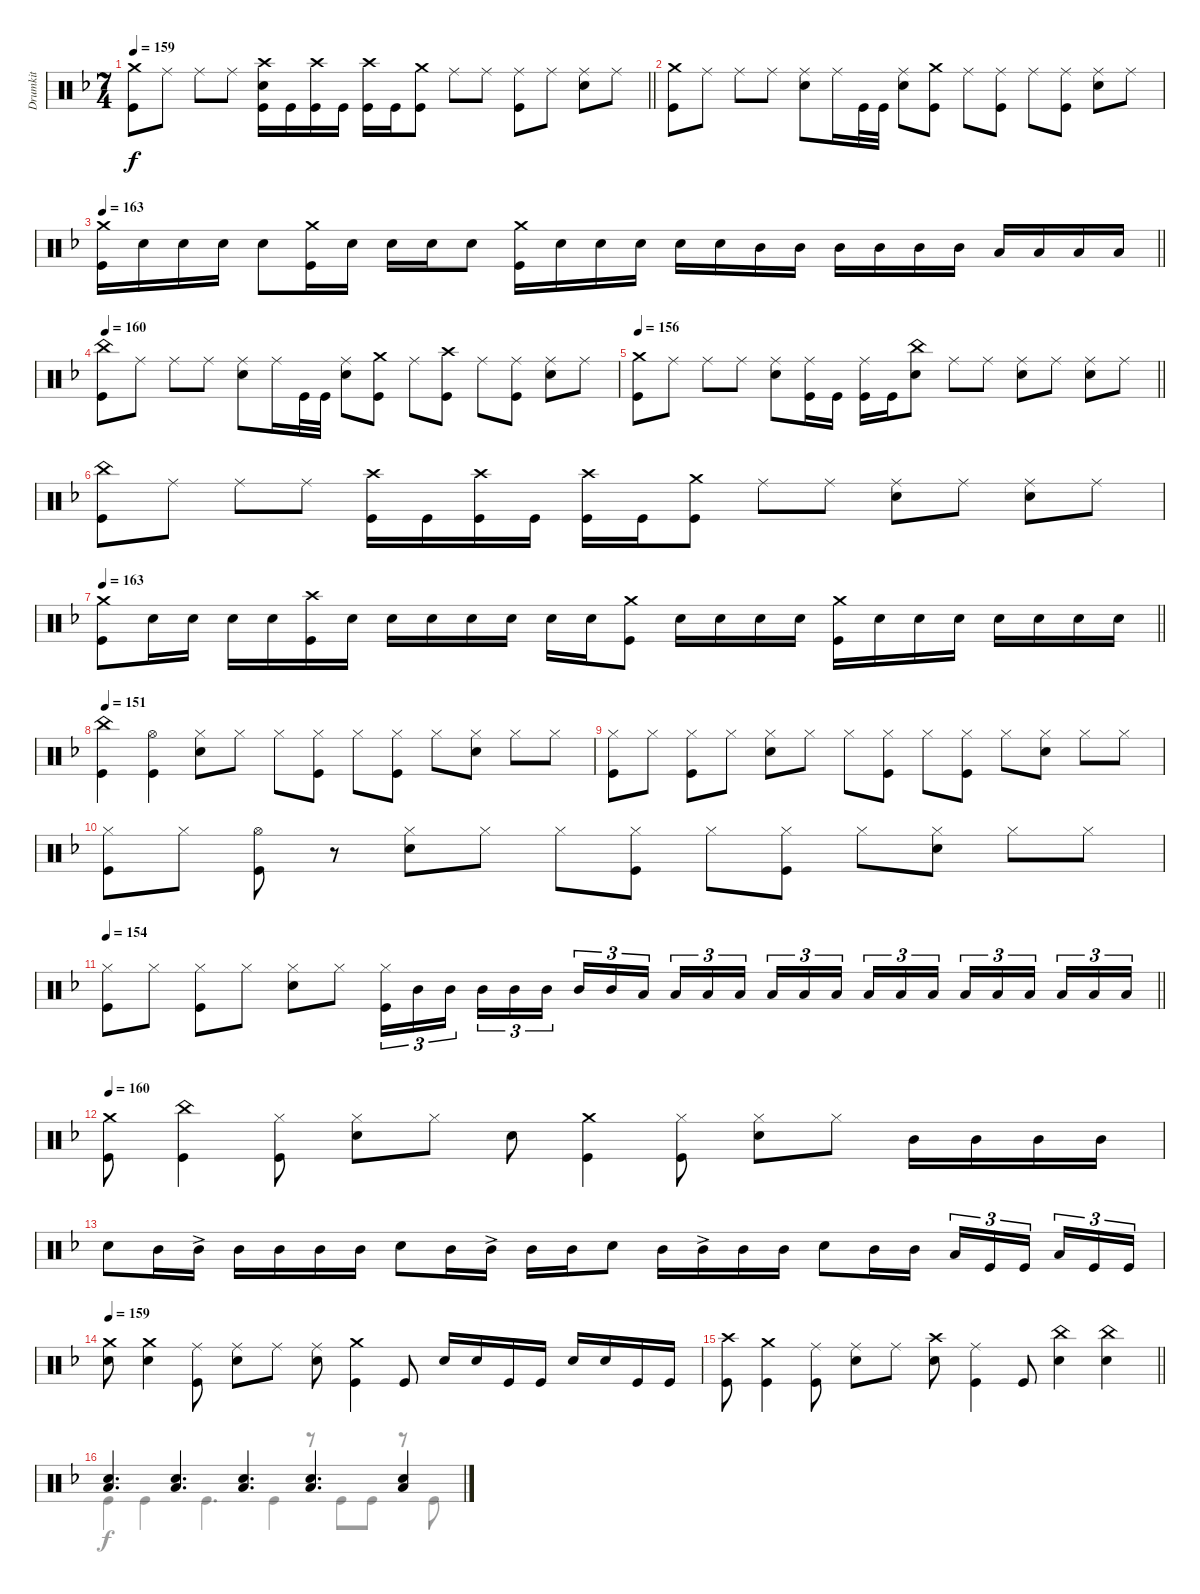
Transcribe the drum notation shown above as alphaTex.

\track ("Drumkit" "Drumkit") {instrument percussion}
\staff {score}
\articulation defaults
\voice
\ts (7 4)
\tempo 159
\clef neutral
\barLineRight lightlight
\ks dminor
("Crash medium (hit)" "Kick (hit)").8{dy f} "Ride (middle)".8 "Ride (middle)".8 "Ride (middle)".8 ("Snare (hit) 2" "Kick (hit)" "Crash high (hit)").16 "Kick (hit)".16 ("Kick (hit)" "Crash high (hit)").16 "Kick (hit)".16 ("Kick (hit)" "Crash high (hit)").16 "Kick (hit)".16 ("Kick (hit)" "Crash medium (hit)").8 "Ride (middle)".8 "Ride (middle)".8 ("Ride (middle)" "Kick (hit)").8 "Ride (middle)".8 ("Ride (middle)" "Snare (hit) 2").8 "Ride (middle)".8 |
("Crash medium (hit)" "Kick (hit)").8 "Ride (middle)".8 "Ride (middle)".8 "Ride (middle)".8 ("Ride (middle)" "Snare (hit) 2").8 "Ride (middle)".16 "Kick (hit)".32 "Kick (hit)".32 ("Ride (middle)" "Snare (hit) 2").8 ("Kick (hit)" "Crash medium (hit)").8 "Ride (middle)".8 ("Ride (middle)" "Kick (hit)").8 "Ride (middle)".8 ("Ride (middle)" "Kick (hit)").8 ("Ride (middle)" "Snare (hit) 2").8 "Ride (middle)".8 |
\tempo 163
\barLineRight lightlight
("Crash medium (hit)" "Kick (hit)").16 "Snare (hit) 2".16 "Snare (hit) 2".16 "Snare (hit) 2".16 "Snare (hit) 2".8 ("Crash medium (hit)" "Kick (hit)").16 "Snare (hit) 2".16 "Snare (hit) 2".16 "Snare (hit) 2".16 "Snare (hit) 2".8 ("Crash medium (hit)" "Kick (hit)").16 "Snare (hit) 2".16 "Snare (hit) 2".16 "Snare (hit) 2".16 "Snare (hit) 2".16 "Snare (hit) 2".16 "Mid Tom (hit)".16 "Mid Tom (hit)".16 "Mid Tom (hit)".16 "Mid Tom (hit)".16 "Mid Tom (hit)".16 "Mid Tom (hit)".16 "Low Floor Tom (hit)".16 "Low Floor Tom (hit)".16 "Low Floor Tom (hit)".16 "Low Floor Tom (hit)".16 |
\tempo 160
("Kick (hit)" "China (hit)").8 "Ride (middle)".8 "Ride (middle)".8 "Ride (middle)".8 ("Ride (middle)" "Snare (hit) 2").8 "Ride (middle)".16 "Kick (hit)".32 "Kick (hit)".32 ("Ride (middle)" "Snare (hit) 2").8 ("Kick (hit)" "Crash medium (hit)").8 "Ride (middle)".8 ("Kick (hit)" "Crash high (hit)").8 "Ride (middle)".8 ("Ride (middle)" "Kick (hit)").8 ("Ride (middle)" "Snare (hit) 2").8 "Ride (middle)".8 |
\tempo 156
\barLineRight lightlight
("Crash medium (hit)" "Kick (hit)").8 "Ride (middle)".8 "Ride (middle)".8 "Ride (middle)".8 ("Ride (middle)" "Snare (hit) 2").8 ("Ride (middle)" "Kick (hit)").16 "Kick (hit)".16 ("Ride (middle)" "Kick (hit)").16 "Kick (hit)".16 ("China (hit)" "Snare (hit) 2").8 "Ride (middle)".8 "Ride (middle)".8 ("Ride (middle)" "Snare (hit) 2").8 "Ride (middle)".8 ("Ride (middle)" "Snare (hit) 2").8 "Ride (middle)".8 |
("Kick (hit)" "China (hit)").8 "Ride (middle)".8 "Ride (middle)".8 "Ride (middle)".8 ("Kick (hit)" "Crash high (hit)").16 "Kick (hit)".16 ("Kick (hit)" "Crash high (hit)").16 "Kick (hit)".16 ("Kick (hit)" "Crash high (hit)").16 "Kick (hit)".16 ("Kick (hit)" "Crash medium (hit)").8 "Ride (middle)".8 "Ride (middle)".8 ("Ride (middle)" "Snare (hit) 2").8 "Ride (middle)".8 ("Ride (middle)" "Snare (hit) 2").8 "Ride (middle)".8 |
\tempo 163
\barLineRight lightlight
("Crash medium (hit)" "Kick (hit)").8 "Snare (hit) 2".16 "Snare (hit) 2".16 "Snare (hit) 2".16 "Snare (hit) 2".16 ("Kick (hit)" "Crash high (hit)").16 "Snare (hit) 2".16 "Snare (hit) 2".16 "Snare (hit) 2".16 "Snare (hit) 2".16 "Snare (hit) 2".16 "Snare (hit) 2".16 "Snare (hit) 2".16 ("Kick (hit)" "Crash medium (hit)").8 "Snare (hit) 2".16 "Snare (hit) 2".16 "Snare (hit) 2".16 "Snare (hit) 2".16 ("Kick (hit)" "Crash medium (hit)").16 "Snare (hit) 2".16 "Snare (hit) 2".16 "Snare (hit) 2".16 "Snare (hit) 2".16 "Snare (hit) 2".16 "Snare (hit) 2".16 "Snare (hit) 2".16 |
\section ("" "")
\tempo 151
("Kick (hit)" "China (hit)").4 ("Hi-Hat (open)" "Kick (hit)").4 ("Hi-Hat (closed)" "Snare (hit) 2").8 "Hi-Hat (closed)".8 "Hi-Hat (closed)".8 ("Hi-Hat (closed)" "Kick (hit)").8 "Hi-Hat (closed)".8 ("Hi-Hat (closed)" "Kick (hit)").8 "Hi-Hat (closed)".8 ("Hi-Hat (closed)" "Snare (hit) 2").8 "Hi-Hat (closed)".8 "Hi-Hat (closed)".8 |
("Hi-Hat (closed)" "Kick (hit)").8 "Hi-Hat (closed)".8 ("Hi-Hat (closed)" "Kick (hit)").8 "Hi-Hat (closed)".8 ("Hi-Hat (closed)" "Snare (hit) 2").8 "Hi-Hat (closed)".8 "Hi-Hat (closed)".8 ("Hi-Hat (closed)" "Kick (hit)").8 "Hi-Hat (closed)".8 ("Hi-Hat (closed)" "Kick (hit)").8 "Hi-Hat (closed)".8 ("Hi-Hat (closed)" "Snare (hit) 2").8 "Hi-Hat (closed)".8 "Hi-Hat (closed)".8 |
("Hi-Hat (closed)" "Kick (hit)").8 "Hi-Hat (closed)".8 ("Hi-Hat (open)" "Kick (hit)").8 r.8 ("Hi-Hat (closed)" "Snare (hit) 2").8 "Hi-Hat (closed)".8 "Hi-Hat (closed)".8 ("Hi-Hat (closed)" "Kick (hit)").8 "Hi-Hat (closed)".8 ("Hi-Hat (closed)" "Kick (hit)").8 "Hi-Hat (closed)".8 ("Hi-Hat (closed)" "Snare (hit) 2").8 "Hi-Hat (closed)".8 "Hi-Hat (closed)".8 |
\tempo 154
\barLineRight lightlight
("Hi-Hat (closed)" "Kick (hit)").8 "Hi-Hat (closed)".8 ("Hi-Hat (closed)" "Kick (hit)").8 "Hi-Hat (closed)".8 ("Hi-Hat (closed)" "Snare (hit) 2").8 "Hi-Hat (closed)".8 ("Hi-Hat (closed)" "Kick (hit)").16{tu (3 2)} "Mid Tom (hit)".16{tu (3 2)} "Mid Tom (hit)".16{tu (3 2) beam splitsecondary} "Mid Tom (hit)".16{tu (3 2)} "Mid Tom (hit)".16{tu (3 2)} "Mid Tom (hit)".16{tu (3 2)} "Mid Tom (hit)".16{tu (3 2)} "Mid Tom (hit)".16{tu (3 2)} "Low Tom (hit)".16{tu (3 2) beam splitsecondary} "Low Tom (hit)".16{tu (3 2)} "Low Tom (hit)".16{tu (3 2)} "Low Tom (hit)".16{tu (3 2)} "Low Tom (hit)".16{tu (3 2)} "Low Tom (hit)".16{tu (3 2)} "Low Tom (hit)".16{tu (3 2) beam splitsecondary} "Low Tom (hit)".16{tu (3 2)} "Low Floor Tom (hit)".16{tu (3 2)} "Low Floor Tom (hit)".16{tu (3 2)} "Low Floor Tom (hit)".16{tu (3 2)} "Low Floor Tom (hit)".16{tu (3 2)} "Low Floor Tom (hit)".16{tu (3 2) beam splitsecondary} "Low Floor Tom (hit)".16{tu (3 2)} "Low Floor Tom (hit)".16{tu (3 2)} "Low Floor Tom (hit)".16{tu (3 2)} |
\tempo 160
("Kick (hit)" "Crash medium (hit)").8 ("Kick (hit)" "China (hit)").4 ("Kick (hit)" "Hi-Hat (closed)").8 ("Snare (hit) 2" "Hi-Hat (closed)").8 "Hi-Hat (closed)".8 "Snare (hit) 2".8 ("Kick (hit)" "Crash medium (hit)").4 ("Kick (hit)" "Hi-Hat (closed)").8 ("Snare (hit) 2" "Hi-Hat (closed)").8 "Hi-Hat (closed)".8 "Mid Tom (hit)".16 "Mid Tom (hit)".16 "Mid Tom (hit)".16 "Mid Tom (hit)".16 |
"Snare (hit) 2".8 "Mid Tom (hit)".16 "Mid Tom (hit)"{ac}.16 "Mid Tom (hit)".16 "Mid Tom (hit)".16 "Mid Tom (hit)".16 "Mid Tom (hit)".16 "Snare (hit) 2".8 "Mid Tom (hit)".16 "Mid Tom (hit)"{ac}.16 "Mid Tom (hit)".16 "Mid Tom (hit)".16 "Snare (hit) 2".8 "Mid Tom (hit)".16 "Mid Tom (hit)"{ac}.16 "Mid Tom (hit)".16 "Mid Tom (hit)".16 "Snare (hit) 2".8 "Mid Tom (hit)".16 "Mid Tom (hit)".16 "Low Floor Tom (hit)".16{tu (3 2)} "Kick (hit)".16{tu (3 2)} "Kick (hit)".16{tu (3 2) beam splitsecondary} "Low Floor Tom (hit)".16{tu (3 2)} "Kick (hit)".16{tu (3 2)} "Kick (hit)".16{tu (3 2)} |
\tempo 159
("Snare (hit) 2" "Crash medium (hit)").8 ("Snare (hit) 2" "Crash medium (hit)").4 ("Kick (hit)" "Ride (middle)").8 ("Snare (hit) 2" "Ride (middle)").8 "Ride (middle)".8 ("Snare (hit) 2" "Ride (middle)").8 ("Crash medium (hit)" "Kick (hit)").4 "Kick (hit)".8 "Snare (hit) 2".16 "Snare (hit) 2".16 "Kick (hit)".16 "Kick (hit)".16 "Snare (hit) 2".16 "Snare (hit) 2".16 "Kick (hit)".16 "Kick (hit)".16 |
\barLineRight lightlight
("Kick (hit)" "Crash high (hit)").8 ("Kick (hit)" "Crash medium (hit)").4 ("Kick (hit)" "Ride (middle)").8 ("Snare (hit) 2" "Ride (middle)").8 "Ride (middle)".8 ("Snare (hit) 2" "Crash high (hit)").8 ("Kick (hit)" "Ride (middle)").4 "Kick (hit)".8 ("Snare (hit) 2" "China (hit)").4 ("Snare (hit) 2" "China (hit)").4 |
("Snare (hit) 2" "Low Floor Tom (hit)").4{d} ("Snare (hit) 2" "Low Floor Tom (hit)").4{d} ("Snare (hit) 2" "Low Floor Tom (hit)").4{d} ("Snare (hit) 2" "Low Floor Tom (hit)").4{d} ("Snare (hit) 2" "Low Floor Tom (hit)").4
\voice
\clef neutral
\ottava regular
\simile none
\barLineRight lightlight
\ks dminor
|
|
\barLineRight lightlight
|
|
\barLineRight lightlight
|
|
\barLineRight lightlight
|
|
|
|
\barLineRight lightlight
|
|
|
|
\barLineRight lightlight
|
"Kick (hit)".4 "Kick (hit)".4 "Kick (hit)".4{d} "Kick (hit)".4 r.8 "Kick (hit)".8 "Kick (hit)".8 r.8 "Kick (hit)".8
